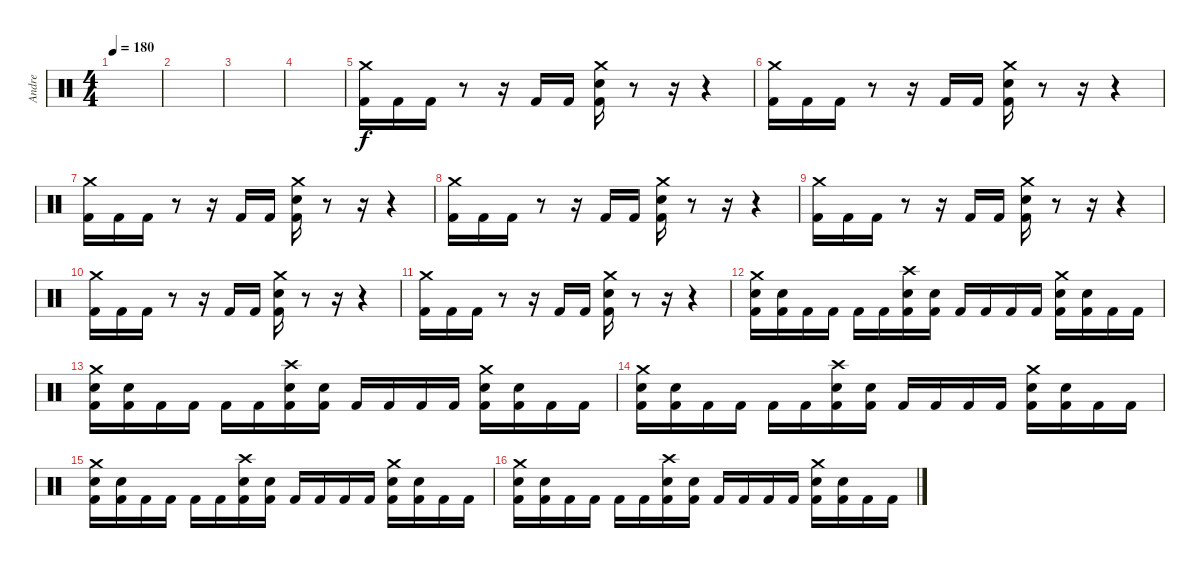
\track ("Andre" "Andre") {instrument percussion}
\staff {score}
\articulation defaults
\ts (4 4)
\tempo 180
\clef neutral
\ks c
|
|
|
|
("Crash medium (hit)" "Kick (hit) 2").16 "Kick (hit) 2".16 "Kick (hit) 2".16 r.8 r.16 "Kick (hit) 2".16 "Kick (hit) 2".16 ("Crash medium (hit)" "Snare (hit) 2" "Kick (hit) 2").16 r.8 r.16 r.4 |
("Crash medium (hit)" "Kick (hit) 2").16 "Kick (hit) 2".16 "Kick (hit) 2".16 r.8 r.16 "Kick (hit) 2".16 "Kick (hit) 2".16 ("Crash medium (hit)" "Snare (hit) 2" "Kick (hit) 2").16 r.8 r.16 r.4 |
("Crash medium (hit)" "Kick (hit) 2").16 "Kick (hit) 2".16 "Kick (hit) 2".16 r.8 r.16 "Kick (hit) 2".16 "Kick (hit) 2".16 ("Crash medium (hit)" "Snare (hit) 2" "Kick (hit) 2").16 r.8 r.16 r.4 |
("Crash medium (hit)" "Kick (hit) 2").16 "Kick (hit) 2".16 "Kick (hit) 2".16 r.8 r.16 "Kick (hit) 2".16 "Kick (hit) 2".16 ("Crash medium (hit)" "Snare (hit) 2" "Kick (hit) 2").16 r.8 r.16 r.4 |
("Crash medium (hit)" "Kick (hit) 2").16 "Kick (hit) 2".16 "Kick (hit) 2".16 r.8 r.16 "Kick (hit) 2".16 "Kick (hit) 2".16 ("Crash medium (hit)" "Snare (hit) 2" "Kick (hit) 2").16 r.8 r.16 r.4 |
("Crash medium (hit)" "Kick (hit) 2").16 "Kick (hit) 2".16 "Kick (hit) 2".16 r.8 r.16 "Kick (hit) 2".16 "Kick (hit) 2".16 ("Crash medium (hit)" "Snare (hit) 2" "Kick (hit) 2").16 r.8 r.16 r.4 |
("Crash medium (hit)" "Kick (hit) 2").16 "Kick (hit) 2".16 "Kick (hit) 2".16 r.8 r.16 "Kick (hit) 2".16 "Kick (hit) 2".16 ("Crash medium (hit)" "Snare (hit) 2" "Kick (hit) 2").16 r.8 r.16 r.4 |
("Crash medium (hit)" "Snare (hit) 2" "Kick (hit) 2").16 ("Snare (hit) 2" "Kick (hit) 2").16 "Kick (hit) 2".16 "Kick (hit) 2".16 "Kick (hit) 2".16 "Kick (hit) 2".16 ("Crash high (hit)" "Snare (hit) 2" "Kick (hit) 2").16 ("Snare (hit) 2" "Kick (hit) 2").16 "Kick (hit) 2".16 "Kick (hit) 2".16 "Kick (hit) 2".16 "Kick (hit) 2".16 ("Crash medium (hit)" "Snare (hit) 2" "Kick (hit) 2").16 ("Snare (hit) 2" "Kick (hit) 2").16 "Kick (hit) 2".16 "Kick (hit) 2".16 |
("Crash medium (hit)" "Snare (hit) 2" "Kick (hit) 2").16 ("Snare (hit) 2" "Kick (hit) 2").16 "Kick (hit) 2".16 "Kick (hit) 2".16 "Kick (hit) 2".16 "Kick (hit) 2".16 ("Crash high (hit)" "Snare (hit) 2" "Kick (hit) 2").16 ("Snare (hit) 2" "Kick (hit) 2").16 "Kick (hit) 2".16 "Kick (hit) 2".16 "Kick (hit) 2".16 "Kick (hit) 2".16 ("Crash medium (hit)" "Snare (hit) 2" "Kick (hit) 2").16 ("Snare (hit) 2" "Kick (hit) 2").16 "Kick (hit) 2".16 "Kick (hit) 2".16 |
("Crash medium (hit)" "Snare (hit) 2" "Kick (hit) 2").16 ("Snare (hit) 2" "Kick (hit) 2").16 "Kick (hit) 2".16 "Kick (hit) 2".16 "Kick (hit) 2".16 "Kick (hit) 2".16 ("Crash high (hit)" "Snare (hit) 2" "Kick (hit) 2").16 ("Snare (hit) 2" "Kick (hit) 2").16 "Kick (hit) 2".16 "Kick (hit) 2".16 "Kick (hit) 2".16 "Kick (hit) 2".16 ("Crash medium (hit)" "Snare (hit) 2" "Kick (hit) 2").16 ("Snare (hit) 2" "Kick (hit) 2").16 "Kick (hit) 2".16 "Kick (hit) 2".16 |
("Crash medium (hit)" "Snare (hit) 2" "Kick (hit) 2").16 ("Snare (hit) 2" "Kick (hit) 2").16 "Kick (hit) 2".16 "Kick (hit) 2".16 "Kick (hit) 2".16 "Kick (hit) 2".16 ("Crash high (hit)" "Snare (hit) 2" "Kick (hit) 2").16 ("Snare (hit) 2" "Kick (hit) 2").16 "Kick (hit) 2".16 "Kick (hit) 2".16 "Kick (hit) 2".16 "Kick (hit) 2".16 ("Crash medium (hit)" "Snare (hit) 2" "Kick (hit) 2").16 ("Snare (hit) 2" "Kick (hit) 2").16 "Kick (hit) 2".16 "Kick (hit) 2".16 |
("Crash medium (hit)" "Snare (hit) 2" "Kick (hit) 2").16 ("Snare (hit) 2" "Kick (hit) 2").16 "Kick (hit) 2".16 "Kick (hit) 2".16 "Kick (hit) 2".16 "Kick (hit) 2".16 ("Crash high (hit)" "Snare (hit) 2" "Kick (hit) 2").16 ("Snare (hit) 2" "Kick (hit) 2").16 "Kick (hit) 2".16 "Kick (hit) 2".16 "Kick (hit) 2".16 "Kick (hit) 2".16 ("Crash medium (hit)" "Snare (hit) 2" "Kick (hit) 2").16 ("Snare (hit) 2" "Kick (hit) 2").16 "Kick (hit) 2".16 "Kick (hit) 2".16
